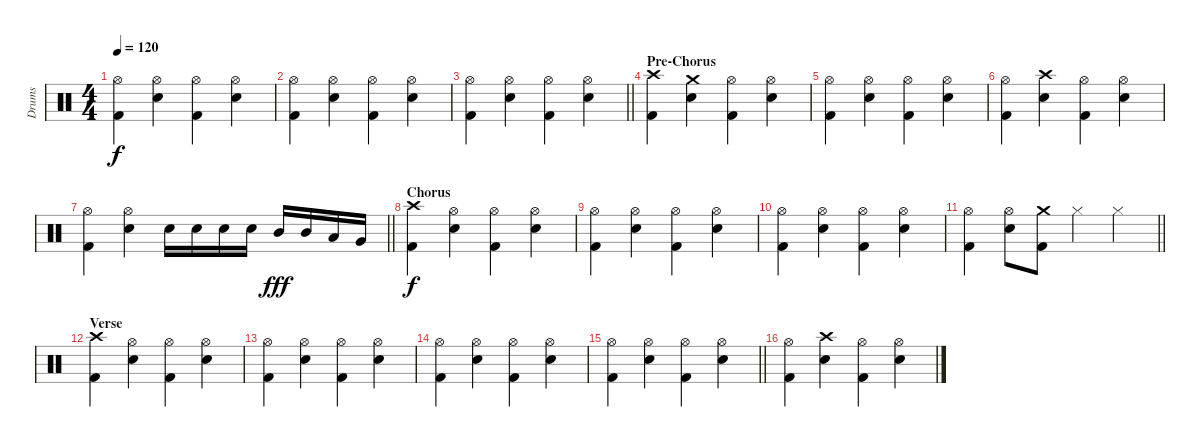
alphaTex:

\track ("Drums" "Drums") {instrument percussion}
\staff {score}
\articulation defaults
\ts (4 4)
\tempo 120
\clef neutral
\ks c
("Hi-Hat (open)" "Kick (hit) 2").4{dy f} ("Hi-Hat (open)" "Snare (hit) 2").4 ("Hi-Hat (open)" "Kick (hit) 2").4 ("Hi-Hat (open)" "Snare (hit) 2").4 |
("Hi-Hat (open)" "Kick (hit) 2").4 ("Hi-Hat (open)" "Snare (hit) 2").4 ("Hi-Hat (open)" "Kick (hit) 2").4 ("Hi-Hat (open)" "Snare (hit) 2").4 |
\barLineRight lightlight
("Hi-Hat (open)" "Kick (hit) 2").4 ("Hi-Hat (open)" "Snare (hit) 2").4 ("Hi-Hat (open)" "Kick (hit) 2").4 ("Hi-Hat (open)" "Snare (hit) 2").4 |
\section ("" "Pre-Chorus")
("Crash high (hit)" "Kick (hit) 2").4 ("Crash medium (hit)" "Snare (hit) 2").4 ("Hi-Hat (open)" "Kick (hit) 2").4 ("Hi-Hat (open)" "Snare (hit) 2").4 |
("Hi-Hat (open)" "Kick (hit) 2").4 ("Hi-Hat (open)" "Snare (hit) 2").4 ("Hi-Hat (open)" "Kick (hit) 2").4 ("Hi-Hat (open)" "Snare (hit) 2").4 |
("Hi-Hat (open)" "Kick (hit) 2").4 ("Crash high (hit)" "Snare (hit) 2").4 ("Hi-Hat (open)" "Kick (hit) 2").4 ("Hi-Hat (open)" "Snare (hit) 2").4 |
\barLineRight lightlight
("Hi-Hat (open)" "Kick (hit) 2").4 ("Hi-Hat (open)" "Snare (hit) 2").4 "Snare (hit) 2".16 "Snare (hit) 2".16 "Snare (hit) 2".16 "Snare (hit) 2".16 "Mid Tom (hit)".16{dy fff} "Mid Tom (hit)".16 "Low Tom (hit)".16 "Very Low Tom (hit)".16 |
\section ("" "Chorus")
("Crash high (hit)" "Kick (hit) 2").4{dy f} ("Hi-Hat (open)" "Snare (hit) 2").4 ("Hi-Hat (open)" "Kick (hit) 2").4 ("Hi-Hat (open)" "Snare (hit) 2").4 |
("Hi-Hat (open)" "Kick (hit) 2").4 ("Hi-Hat (open)" "Snare (hit) 2").4 ("Hi-Hat (open)" "Kick (hit) 2").4 ("Hi-Hat (open)" "Snare (hit) 2").4 |
("Hi-Hat (open)" "Kick (hit) 2").4 ("Hi-Hat (open)" "Snare (hit) 2").4 ("Hi-Hat (open)" "Kick (hit) 2").4 ("Hi-Hat (open)" "Snare (hit) 2").4 |
\barLineRight lightlight
("Hi-Hat (open)" "Kick (hit) 2").4 ("Hi-Hat (open)" "Snare (hit) 2").8 ("Crash medium (hit)" "Kick (hit) 2").8 "Hi-Hat (closed)".4 "Hi-Hat (closed)".4 |
\section ("" "Verse")
("Crash high (hit)" "Kick (hit) 2").4 ("Hi-Hat (open)" "Snare (hit) 2").4 ("Hi-Hat (open)" "Kick (hit) 2").4 ("Hi-Hat (open)" "Snare (hit) 2").4 |
("Hi-Hat (open)" "Kick (hit) 2").4 ("Hi-Hat (open)" "Snare (hit) 2").4 ("Hi-Hat (open)" "Kick (hit) 2").4 ("Hi-Hat (open)" "Snare (hit) 2").4 |
("Hi-Hat (open)" "Kick (hit) 2").4 ("Hi-Hat (open)" "Snare (hit) 2").4 ("Hi-Hat (open)" "Kick (hit) 2").4 ("Hi-Hat (open)" "Snare (hit) 2").4 |
\barLineRight lightlight
("Hi-Hat (open)" "Kick (hit) 2").4 ("Hi-Hat (open)" "Snare (hit) 2").4 ("Hi-Hat (open)" "Kick (hit) 2").4 ("Hi-Hat (open)" "Snare (hit) 2").4 |
("Hi-Hat (open)" "Kick (hit) 2").4 ("Crash high (hit)" "Snare (hit) 2").4 ("Hi-Hat (open)" "Kick (hit) 2").4 ("Hi-Hat (open)" "Snare (hit) 2").4
